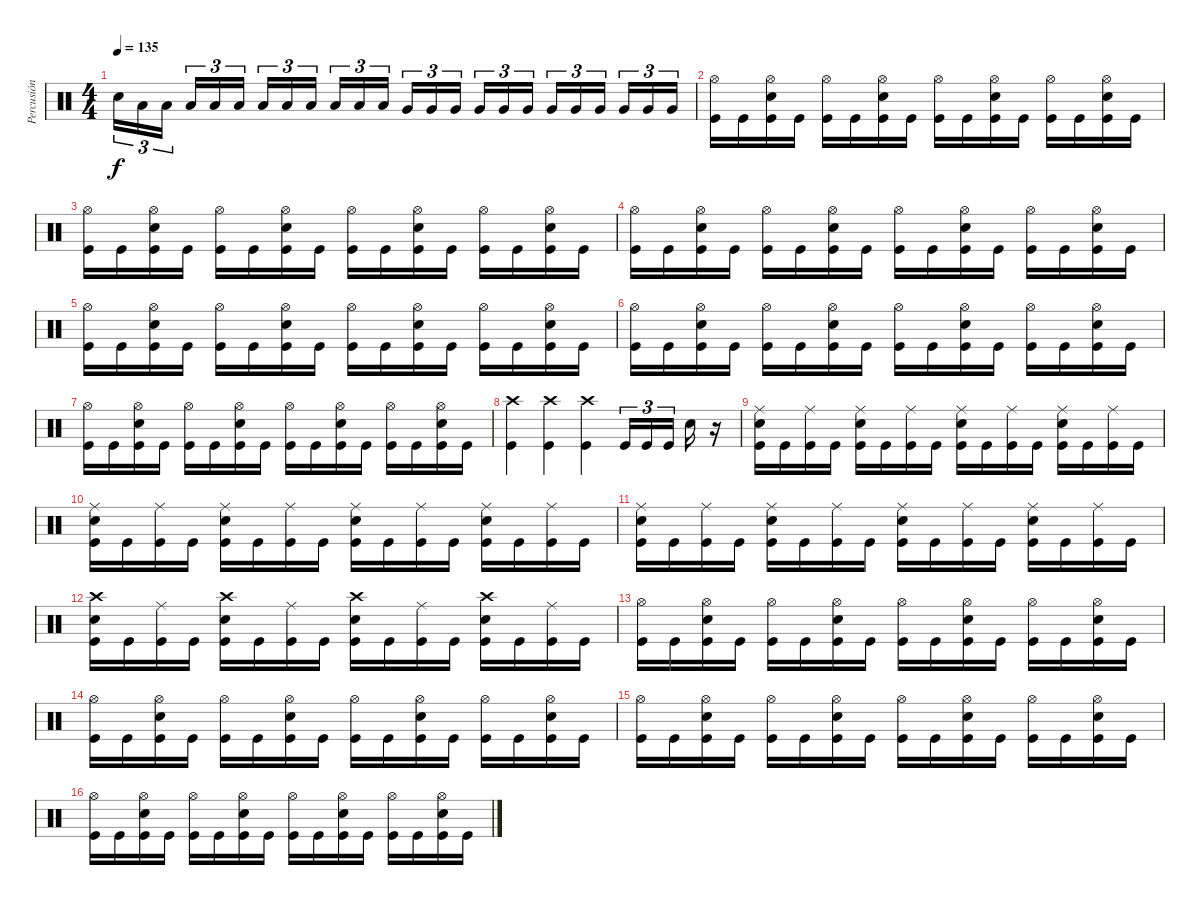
\track ("Percusión" "Percusión") {instrument percussion}
\staff {score}
\articulation defaults
\ts (4 4)
\tempo 135
\clef neutral
\ks c "Snare (hit) 2".16{tu (3 2) dy f} "Low Floor Tom (hit)".16{tu (3 2)} "Low Floor Tom (hit)".16{tu (3 2) beam splitsecondary} "Low Floor Tom (hit)".16{tu (3 2)} "Low Floor Tom (hit)".16{tu (3 2)} "Low Floor Tom (hit)".16{tu (3 2)} "Low Floor Tom (hit)".16{tu (3 2)} "Low Floor Tom (hit)".16{tu (3 2)} "Low Floor Tom (hit)".16{tu (3 2) beam splitsecondary} "Low Floor Tom (hit)".16{tu (3 2)} "Low Floor Tom (hit)".16{tu (3 2)} "Low Floor Tom (hit)".16{tu (3 2)} "Very Low Tom (hit)".16{tu (3 2)} "Very Low Tom (hit)".16{tu (3 2)} "Very Low Tom (hit)".16{tu (3 2) beam splitsecondary} "Very Low Tom (hit)".16{tu (3 2)} "Very Low Tom (hit)".16{tu (3 2)} "Very Low Tom (hit)".16{tu (3 2)} "Very Low Tom (hit)".16{tu (3 2)} "Very Low Tom (hit)".16{tu (3 2)} "Very Low Tom (hit)".16{tu (3 2) beam splitsecondary} "Very Low Tom (hit)".16{tu (3 2)} "Very Low Tom (hit)".16{tu (3 2)} "Very Low Tom (hit)".16{tu (3 2)}
|
("Hi-Hat (open)" "Kick (hit)").16 "Kick (hit)".16 ("Hi-Hat (open)" "Snare (hit) 2" "Kick (hit)").16 "Kick (hit)".16 ("Hi-Hat (open)" "Kick (hit)").16 "Kick (hit)".16 ("Hi-Hat (open)" "Snare (hit) 2" "Kick (hit)").16 "Kick (hit)".16 ("Hi-Hat (open)" "Kick (hit)").16 "Kick (hit)".16 ("Hi-Hat (open)" "Snare (hit) 2" "Kick (hit)").16 "Kick (hit)".16 ("Hi-Hat (open)" "Kick (hit)").16 "Kick (hit)".16 ("Hi-Hat (open)" "Snare (hit) 2" "Kick (hit)").16 "Kick (hit)".16 |
("Hi-Hat (open)" "Kick (hit)").16 "Kick (hit)".16 ("Hi-Hat (open)" "Snare (hit) 2" "Kick (hit)").16 "Kick (hit)".16 ("Hi-Hat (open)" "Kick (hit)").16 "Kick (hit)".16 ("Hi-Hat (open)" "Snare (hit) 2" "Kick (hit)").16 "Kick (hit)".16 ("Hi-Hat (open)" "Kick (hit)").16 "Kick (hit)".16 ("Hi-Hat (open)" "Snare (hit) 2" "Kick (hit)").16 "Kick (hit)".16 ("Hi-Hat (open)" "Kick (hit)").16 "Kick (hit)".16 ("Hi-Hat (open)" "Snare (hit) 2" "Kick (hit)").16 "Kick (hit)".16 |
("Hi-Hat (open)" "Kick (hit)").16 "Kick (hit)".16 ("Hi-Hat (open)" "Snare (hit) 2" "Kick (hit)").16 "Kick (hit)".16 ("Hi-Hat (open)" "Kick (hit)").16 "Kick (hit)".16 ("Hi-Hat (open)" "Snare (hit) 2" "Kick (hit)").16 "Kick (hit)".16 ("Hi-Hat (open)" "Kick (hit)").16 "Kick (hit)".16 ("Hi-Hat (open)" "Snare (hit) 2" "Kick (hit)").16 "Kick (hit)".16 ("Hi-Hat (open)" "Kick (hit)").16 "Kick (hit)".16 ("Hi-Hat (open)" "Snare (hit) 2" "Kick (hit)").16 "Kick (hit)".16 |
("Hi-Hat (open)" "Kick (hit)").16 "Kick (hit)".16 ("Hi-Hat (open)" "Snare (hit) 2" "Kick (hit)").16 "Kick (hit)".16 ("Hi-Hat (open)" "Kick (hit)").16 "Kick (hit)".16 ("Hi-Hat (open)" "Snare (hit) 2" "Kick (hit)").16 "Kick (hit)".16 ("Hi-Hat (open)" "Kick (hit)").16 "Kick (hit)".16 ("Hi-Hat (open)" "Snare (hit) 2" "Kick (hit)").16 "Kick (hit)".16 ("Hi-Hat (open)" "Kick (hit)").16 "Kick (hit)".16 ("Hi-Hat (open)" "Snare (hit) 2" "Kick (hit)").16 "Kick (hit)".16 |
("Hi-Hat (open)" "Kick (hit)").16 "Kick (hit)".16 ("Hi-Hat (open)" "Snare (hit) 2" "Kick (hit)").16 "Kick (hit)".16 ("Hi-Hat (open)" "Kick (hit)").16 "Kick (hit)".16 ("Hi-Hat (open)" "Snare (hit) 2" "Kick (hit)").16 "Kick (hit)".16 ("Hi-Hat (open)" "Kick (hit)").16 "Kick (hit)".16 ("Hi-Hat (open)" "Snare (hit) 2" "Kick (hit)").16 "Kick (hit)".16 ("Hi-Hat (open)" "Kick (hit)").16 "Kick (hit)".16 ("Hi-Hat (open)" "Snare (hit) 2" "Kick (hit)").16 "Kick (hit)".16 |
("Hi-Hat (open)" "Kick (hit)").16 "Kick (hit)".16 ("Hi-Hat (open)" "Snare (hit) 2" "Kick (hit)").16 "Kick (hit)".16 ("Hi-Hat (open)" "Kick (hit)").16 "Kick (hit)".16 ("Hi-Hat (open)" "Snare (hit) 2" "Kick (hit)").16 "Kick (hit)".16 ("Hi-Hat (open)" "Kick (hit)").16 "Kick (hit)".16 ("Hi-Hat (open)" "Snare (hit) 2" "Kick (hit)").16 "Kick (hit)".16 ("Hi-Hat (open)" "Kick (hit)").16 "Kick (hit)".16 ("Hi-Hat (open)" "Snare (hit) 2" "Kick (hit)").16 "Kick (hit)".16 |
("Crash high (hit)" "Kick (hit)").4 ("Crash high (hit)" "Kick (hit)").4 ("Crash high (hit)" "Kick (hit)").4 "Kick (hit)".16{tu (3 2)} "Kick (hit)".16{tu (3 2)} "Kick (hit)".16{tu (3 2) beam splitsecondary} "Snare (hit) 2".16 r.16 |
("Ride (middle)" "Snare (hit) 2" "Kick (hit)").16 "Kick (hit)".16 ("Ride (middle)" "Kick (hit)").16 "Kick (hit)".16 ("Ride (middle)" "Snare (hit) 2" "Kick (hit)").16 "Kick (hit)".16 ("Ride (middle)" "Kick (hit)").16 "Kick (hit)".16 ("Ride (middle)" "Snare (hit) 2" "Kick (hit)").16 "Kick (hit)".16 ("Ride (middle)" "Kick (hit)").16 "Kick (hit)".16 ("Ride (middle)" "Snare (hit) 2" "Kick (hit)").16 "Kick (hit)".16 ("Ride (middle)" "Kick (hit)").16 "Kick (hit)".16 |
("Ride (middle)" "Snare (hit) 2" "Kick (hit)").16 "Kick (hit)".16 ("Ride (middle)" "Kick (hit)").16 "Kick (hit)".16 ("Ride (middle)" "Snare (hit) 2" "Kick (hit)").16 "Kick (hit)".16 ("Ride (middle)" "Kick (hit)").16 "Kick (hit)".16 ("Ride (middle)" "Snare (hit) 2" "Kick (hit)").16 "Kick (hit)".16 ("Ride (middle)" "Kick (hit)").16 "Kick (hit)".16 ("Ride (middle)" "Snare (hit) 2" "Kick (hit)").16 "Kick (hit)".16 ("Ride (middle)" "Kick (hit)").16 "Kick (hit)".16 |
("Ride (middle)" "Snare (hit) 2" "Kick (hit)").16 "Kick (hit)".16 ("Ride (middle)" "Kick (hit)").16 "Kick (hit)".16 ("Ride (middle)" "Snare (hit) 2" "Kick (hit)").16 "Kick (hit)".16 ("Ride (middle)" "Kick (hit)").16 "Kick (hit)".16 ("Ride (middle)" "Snare (hit) 2" "Kick (hit)").16 "Kick (hit)".16 ("Ride (middle)" "Kick (hit)").16 "Kick (hit)".16 ("Ride (middle)" "Snare (hit) 2" "Kick (hit)").16 "Kick (hit)".16 ("Ride (middle)" "Kick (hit)").16 "Kick (hit)".16 |
("Crash high (hit)" "Snare (hit) 2" "Kick (hit)").16 "Kick (hit)".16 ("Ride (middle)" "Kick (hit)").16 "Kick (hit)".16 ("Crash high (hit)" "Snare (hit) 2" "Kick (hit)").16 "Kick (hit)".16 ("Ride (middle)" "Kick (hit)").16 "Kick (hit)".16 ("Crash high (hit)" "Snare (hit) 2" "Kick (hit)").16 "Kick (hit)".16 ("Ride (middle)" "Kick (hit)").16 "Kick (hit)".16 ("Crash high (hit)" "Snare (hit) 2" "Kick (hit)").16 "Kick (hit)".16 ("Ride (middle)" "Kick (hit)").16 "Kick (hit)".16 |
("Hi-Hat (open)" "Kick (hit)").16 "Kick (hit)".16 ("Hi-Hat (open)" "Snare (hit) 2" "Kick (hit)").16 "Kick (hit)".16 ("Hi-Hat (open)" "Kick (hit)").16 "Kick (hit)".16 ("Hi-Hat (open)" "Snare (hit) 2" "Kick (hit)").16 "Kick (hit)".16 ("Hi-Hat (open)" "Kick (hit)").16 "Kick (hit)".16 ("Hi-Hat (open)" "Snare (hit) 2" "Kick (hit)").16 "Kick (hit)".16 ("Hi-Hat (open)" "Kick (hit)").16 "Kick (hit)".16 ("Hi-Hat (open)" "Snare (hit) 2" "Kick (hit)").16 "Kick (hit)".16 |
("Hi-Hat (open)" "Kick (hit)").16 "Kick (hit)".16 ("Hi-Hat (open)" "Snare (hit) 2" "Kick (hit)").16 "Kick (hit)".16 ("Hi-Hat (open)" "Kick (hit)").16 "Kick (hit)".16 ("Hi-Hat (open)" "Snare (hit) 2" "Kick (hit)").16 "Kick (hit)".16 ("Hi-Hat (open)" "Kick (hit)").16 "Kick (hit)".16 ("Hi-Hat (open)" "Snare (hit) 2" "Kick (hit)").16 "Kick (hit)".16 ("Hi-Hat (open)" "Kick (hit)").16 "Kick (hit)".16 ("Hi-Hat (open)" "Snare (hit) 2" "Kick (hit)").16 "Kick (hit)".16 |
("Hi-Hat (open)" "Kick (hit)").16 "Kick (hit)".16 ("Hi-Hat (open)" "Snare (hit) 2" "Kick (hit)").16 "Kick (hit)".16 ("Hi-Hat (open)" "Kick (hit)").16 "Kick (hit)".16 ("Hi-Hat (open)" "Snare (hit) 2" "Kick (hit)").16 "Kick (hit)".16 ("Hi-Hat (open)" "Kick (hit)").16 "Kick (hit)".16 ("Hi-Hat (open)" "Snare (hit) 2" "Kick (hit)").16 "Kick (hit)".16 ("Hi-Hat (open)" "Kick (hit)").16 "Kick (hit)".16 ("Hi-Hat (open)" "Snare (hit) 2" "Kick (hit)").16 "Kick (hit)".16 |
("Hi-Hat (open)" "Kick (hit)").16 "Kick (hit)".16 ("Hi-Hat (open)" "Snare (hit) 2" "Kick (hit)").16 "Kick (hit)".16 ("Hi-Hat (open)" "Kick (hit)").16 "Kick (hit)".16 ("Hi-Hat (open)" "Snare (hit) 2" "Kick (hit)").16 "Kick (hit)".16 ("Hi-Hat (open)" "Kick (hit)").16 "Kick (hit)".16 ("Hi-Hat (open)" "Snare (hit) 2" "Kick (hit)").16 "Kick (hit)".16 ("Hi-Hat (open)" "Kick (hit)").16 "Kick (hit)".16 ("Hi-Hat (open)" "Snare (hit) 2" "Kick (hit)").16 "Kick (hit)".16
